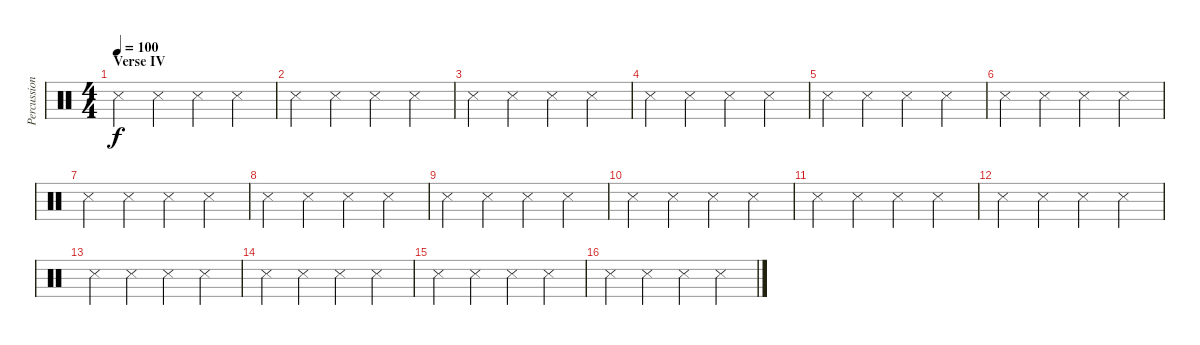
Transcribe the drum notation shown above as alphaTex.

\track ("Percussion" "Percussion") {mute instrument percussion}
\staff {score}
\articulation defaults
\ts (4 4)
\section ("" "Verse IV")
\tempo 100
\clef neutral
\ks c "Metronome (hit)".4{dy f} "Snare (side stick) 3".4 "Snare (side stick) 3".4 "Snare (side stick) 3".4
|
"Metronome (hit)".4 "Snare (side stick) 3".4 "Snare (side stick) 3".4 "Snare (side stick) 3".4 |
"Metronome (hit)".4 "Snare (side stick) 3".4 "Snare (side stick) 3".4 "Snare (side stick) 3".4 |
"Metronome (hit)".4 "Snare (side stick) 3".4 "Snare (side stick) 3".4 "Snare (side stick) 3".4 |
"Metronome (hit)".4 "Snare (side stick) 3".4 "Snare (side stick) 3".4 "Snare (side stick) 3".4 |
"Metronome (hit)".4 "Snare (side stick) 3".4 "Snare (side stick) 3".4 "Snare (side stick) 3".4 |
"Metronome (hit)".4 "Snare (side stick) 3".4 "Snare (side stick) 3".4 "Snare (side stick) 3".4 |
"Metronome (hit)".4 "Snare (side stick) 3".4 "Snare (side stick) 3".4 "Snare (side stick) 3".4 |
"Metronome (hit)".4 "Snare (side stick) 3".4 "Snare (side stick) 3".4 "Snare (side stick) 3".4 |
"Metronome (hit)".4 "Snare (side stick) 3".4 "Snare (side stick) 3".4 "Snare (side stick) 3".4 |
"Metronome (hit)".4 "Snare (side stick) 3".4 "Snare (side stick) 3".4 "Snare (side stick) 3".4 |
"Metronome (hit)".4 "Snare (side stick) 3".4 "Snare (side stick) 3".4 "Snare (side stick) 3".4 |
"Metronome (hit)".4 "Snare (side stick) 3".4 "Snare (side stick) 3".4 "Snare (side stick) 3".4 |
"Metronome (hit)".4 "Snare (side stick) 3".4 "Snare (side stick) 3".4 "Snare (side stick) 3".4 |
"Metronome (hit)".4 "Snare (side stick) 3".4 "Snare (side stick) 3".4 "Snare (side stick) 3".4 |
"Metronome (hit)".4 "Snare (side stick) 3".4 "Snare (side stick) 3".4 "Snare (side stick) 3".4
